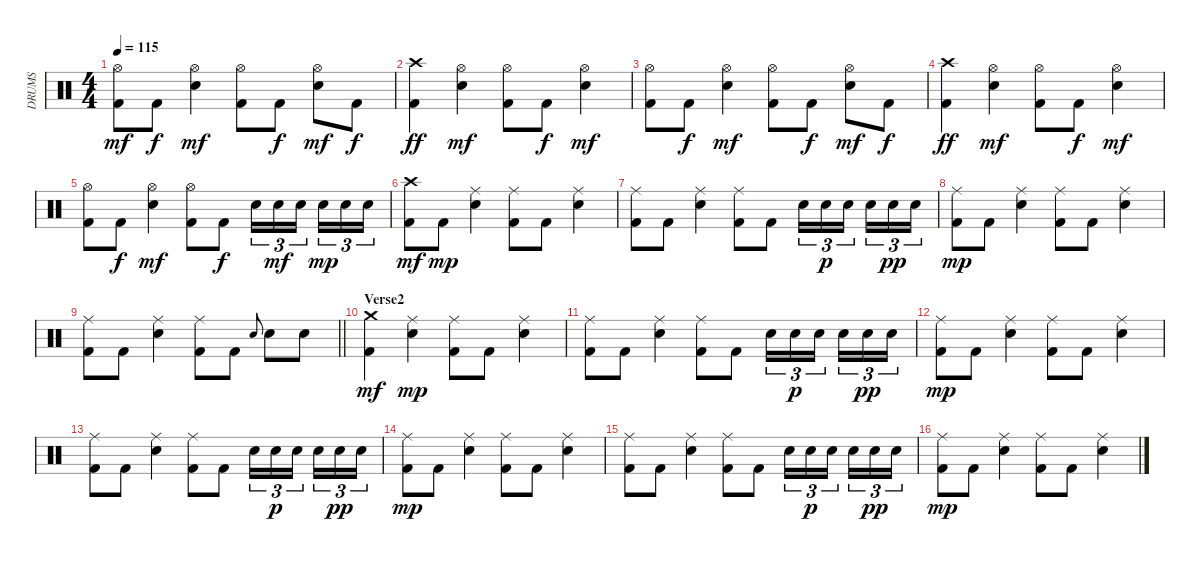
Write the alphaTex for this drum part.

\track ("DRUMS" "DRUMS") {instrument percussion}
\staff {score}
\articulation defaults
\ts (4 4)
\tempo 115
\clef neutral
\ks c
("Hi-Hat (open)" "Kick (hit) 2").8{dy mf} "Kick (hit) 2".8{dy f} ("Hi-Hat (open)" "Snare (hit) 2").4{dy mf} ("Hi-Hat (open)" "Kick (hit) 2").8 "Kick (hit) 2".8{dy f} ("Hi-Hat (open)" "Snare (hit) 2").8{dy mf} "Kick (hit) 2".8{dy f} |
("Crash high (hit)" "Kick (hit) 2").4{dy ff} ("Hi-Hat (open)" "Snare (hit) 2").4{dy mf} ("Hi-Hat (open)" "Kick (hit) 2").8 "Kick (hit) 2".8{dy f} ("Hi-Hat (open)" "Snare (hit) 2").4{dy mf} |
("Hi-Hat (open)" "Kick (hit) 2").8 "Kick (hit) 2".8{dy f} ("Hi-Hat (open)" "Snare (hit) 2").4{dy mf} ("Hi-Hat (open)" "Kick (hit) 2").8 "Kick (hit) 2".8{dy f} ("Hi-Hat (open)" "Snare (hit) 2").8{dy mf} "Kick (hit) 2".8{dy f} |
("Crash high (hit)" "Kick (hit) 2").4{dy ff} ("Hi-Hat (open)" "Snare (hit) 2").4{dy mf} ("Hi-Hat (open)" "Kick (hit) 2").8 "Kick (hit) 2".8{dy f} ("Hi-Hat (open)" "Snare (hit) 2").4{dy mf} |
("Hi-Hat (open)" "Kick (hit) 2").8 "Kick (hit) 2".8{dy f} ("Hi-Hat (open)" "Snare (hit) 2").4{dy mf} ("Hi-Hat (open)" "Kick (hit) 2").8 "Kick (hit) 2".8{dy f} "Electric Snare (hit)".16{tu (3 2)} "Snare (hit) 2".16{tu (3 2) dy mf} "Electric Snare (hit)".16{tu (3 2) beam splitsecondary} "Snare (hit) 2".16{tu (3 2) dy mp} "Electric Snare (hit)".16{tu (3 2)} "Snare (hit) 2".16{tu (3 2)} |
("Crash high (hit)" "Kick (hit) 2").8{dy mf} "Kick (hit) 2".8{dy mp} ("Ride (middle)" "Snare (hit) 2").4 ("Ride (middle)" "Kick (hit) 2").8 "Kick (hit) 2".8 ("Ride (middle)" "Snare (hit) 2").4 |
("Ride (middle)" "Kick (hit) 2").8 "Kick (hit) 2".8 ("Ride (middle)" "Snare (hit) 2").4 ("Ride (middle)" "Kick (hit) 2").8 "Kick (hit) 2".8 "Electric Snare (hit)".16{tu (3 2)} "Snare (hit) 2".16{tu (3 2) dy p} "Electric Snare (hit)".16{tu (3 2) beam splitsecondary} "Snare (hit) 2".16{tu (3 2)} "Electric Snare (hit)".16{tu (3 2) dy pp} "Snare (hit) 2".16{tu (3 2)} |
("Ride (middle)" "Kick (hit) 2").8{dy mp} "Kick (hit) 2".8 ("Ride (middle)" "Snare (hit) 2").4 ("Ride (middle)" "Kick (hit) 2").8 "Kick (hit) 2".8 ("Ride (middle)" "Snare (hit) 2").4 |
\barLineRight lightlight
("Ride (middle)" "Kick (hit) 2").8 "Kick (hit) 2".8 ("Ride (middle)" "Snare (hit) 2").4 ("Ride (middle)" "Kick (hit) 2").8 "Kick (hit) 2".8 "Electric Snare (hit)".8{gr onbeat} "Snare (hit) 2".8 "Snare (hit) 2".8 |
\section ("" "Verse2")
("Crash medium (hit)" "Kick (hit) 2").4{dy mf} ("Ride (middle)" "Snare (hit) 2").4{dy mp} ("Ride (middle)" "Kick (hit) 2").8 "Kick (hit) 2".8 ("Ride (middle)" "Snare (hit) 2").4 |
("Ride (middle)" "Kick (hit) 2").8 "Kick (hit) 2".8 ("Ride (middle)" "Snare (hit) 2").4 ("Ride (middle)" "Kick (hit) 2").8 "Kick (hit) 2".8 "Electric Snare (hit)".16{tu (3 2)} "Snare (hit) 2".16{tu (3 2) dy p} "Electric Snare (hit)".16{tu (3 2) beam splitsecondary} "Snare (hit) 2".16{tu (3 2)} "Electric Snare (hit)".16{tu (3 2) dy pp} "Snare (hit) 2".16{tu (3 2)} |
("Ride (middle)" "Kick (hit) 2").8{dy mp} "Kick (hit) 2".8 ("Ride (middle)" "Snare (hit) 2").4 ("Ride (middle)" "Kick (hit) 2").8 "Kick (hit) 2".8 ("Ride (middle)" "Snare (hit) 2").4 |
("Ride (middle)" "Kick (hit) 2").8 "Kick (hit) 2".8 ("Ride (middle)" "Snare (hit) 2").4 ("Ride (middle)" "Kick (hit) 2").8 "Kick (hit) 2".8 "Electric Snare (hit)".16{tu (3 2)} "Snare (hit) 2".16{tu (3 2) dy p} "Electric Snare (hit)".16{tu (3 2) beam splitsecondary} "Snare (hit) 2".16{tu (3 2)} "Electric Snare (hit)".16{tu (3 2) dy pp} "Snare (hit) 2".16{tu (3 2)} |
("Ride (middle)" "Kick (hit) 2").8{dy mp} "Kick (hit) 2".8 ("Ride (middle)" "Snare (hit) 2").4 ("Ride (middle)" "Kick (hit) 2").8 "Kick (hit) 2".8 ("Ride (middle)" "Snare (hit) 2").4 |
("Ride (middle)" "Kick (hit) 2").8 "Kick (hit) 2".8 ("Ride (middle)" "Snare (hit) 2").4 ("Ride (middle)" "Kick (hit) 2").8 "Kick (hit) 2".8 "Electric Snare (hit)".16{tu (3 2)} "Snare (hit) 2".16{tu (3 2) dy p} "Electric Snare (hit)".16{tu (3 2) beam splitsecondary} "Snare (hit) 2".16{tu (3 2)} "Electric Snare (hit)".16{tu (3 2) dy pp} "Snare (hit) 2".16{tu (3 2)} |
("Ride (middle)" "Kick (hit) 2").8{dy mp} "Kick (hit) 2".8 ("Ride (middle)" "Snare (hit) 2").4 ("Ride (middle)" "Kick (hit) 2").8 "Kick (hit) 2".8 ("Ride (middle)" "Snare (hit) 2").4
